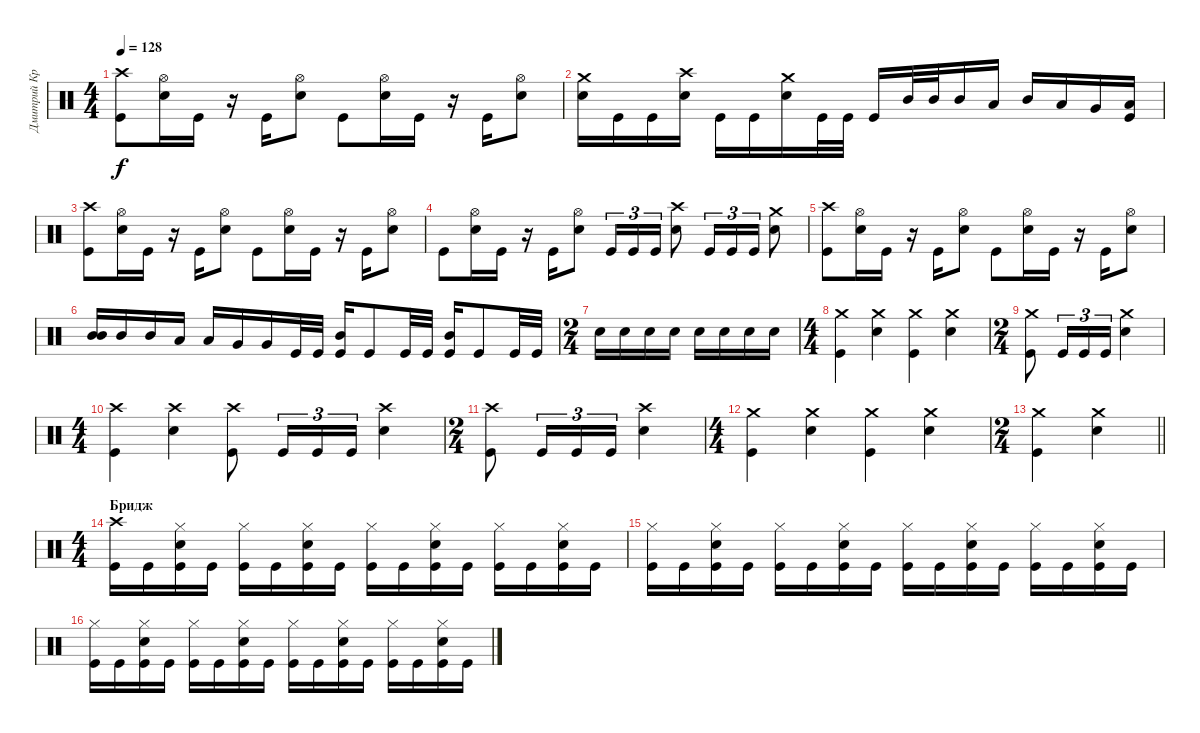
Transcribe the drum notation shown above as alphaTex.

\track ("Дмитрий Кривенков" "Дмитрий Кр") {instrument percussion}
\staff {score}
\articulation defaults
\ts (4 4)
\tempo 128
\clef neutral
\ks c
("Crash high (hit)" "Kick (hit)").8{dy f} ("Snare (hit) 2" "Hi-Hat (open)").16 "Kick (hit)".16 r.16 "Kick (hit)".16 ("Snare (hit) 2" "Hi-Hat (open)").8 "Kick (hit)".8 ("Snare (hit) 2" "Hi-Hat (open)").16 "Kick (hit)".16 r.16 "Kick (hit)".16 ("Snare (hit) 2" "Hi-Hat (open)").8 |
("Crash medium (hit)" "Snare (hit) 2").16 "Kick (hit)".16 "Kick (hit)".16 ("Crash high (hit)" "Snare (hit) 2").16 "Kick (hit)".16 "Kick (hit)".16 ("Crash medium (hit)" "Snare (hit) 2").16 "Kick (hit)".32 "Kick (hit)".32 "Kick (hit)".16 "Mid Tom (hit)".32 "Mid Tom (hit)".32 "Mid Tom (hit)".16 "Low Tom (hit)".16 "Mid Tom (hit)".16 "Low Tom (hit)".16 "Very Low Tom (hit)".16 ("Low Tom (hit)" "Kick (hit)").16 |
("Crash high (hit)" "Kick (hit)").8 ("Snare (hit) 2" "Hi-Hat (open)").16 "Kick (hit)".16 r.16 "Kick (hit)".16 ("Snare (hit) 2" "Hi-Hat (open)").8 "Kick (hit)".8 ("Snare (hit) 2" "Hi-Hat (open)").16 "Kick (hit)".16 r.16 "Kick (hit)".16 ("Snare (hit) 2" "Hi-Hat (open)").8 |
"Kick (hit)".8 ("Snare (hit) 2" "Hi-Hat (open)").16 "Kick (hit)".16 r.16 "Kick (hit)".16 ("Snare (hit) 2" "Hi-Hat (open)").8 "Kick (hit)".16{tu (3 2)} "Kick (hit)".16{tu (3 2)} "Kick (hit)".16{tu (3 2)} ("Snare (hit) 2" "Crash high (hit)").8 "Kick (hit)".16{tu (3 2)} "Kick (hit)".16{tu (3 2)} "Kick (hit)".16{tu (3 2)} ("Snare (hit) 2" "Crash medium (hit)").8 |
("Crash high (hit)" "Kick (hit)").8 ("Snare (hit) 2" "Hi-Hat (open)").16 "Kick (hit)".16 r.16 "Kick (hit)".16 ("Snare (hit) 2" "Hi-Hat (open)").8 "Kick (hit)".8 ("Snare (hit) 2" "Hi-Hat (open)").16 "Kick (hit)".16 r.16 "Kick (hit)".16 ("Snare (hit) 2" "Hi-Hat (open)").8 |
("Mid Tom (hit)" "Mid Tom (hit)").16{bd 120} "Mid Tom (hit)".16 "Mid Tom (hit)".16 "Low Tom (hit)".16 "Low Tom (hit)".16 "Very Low Tom (hit)".16 "Very Low Tom (hit)".16 "Kick (hit)".32 "Kick (hit)".32 ("Kick (hit)" "Mid Tom (hit)").16 "Kick (hit)".8 "Kick (hit)".32 "Kick (hit)".32 ("Kick (hit)" "Mid Tom (hit)").16 "Kick (hit)".8 "Kick (hit)".32 "Kick (hit)".32 |
\ts (2 4)
"Snare (hit) 2".16 "Snare (hit) 2".16 "Snare (hit) 2".16 "Snare (hit) 2".16 "Snare (hit) 2".16 "Snare (hit) 2".16 "Snare (hit) 2".16 "Snare (hit) 2".16 |
\ts (4 4)
("Crash medium (hit)" "Kick (hit)").4 ("Crash medium (hit)" "Snare (hit) 2").4 ("Crash medium (hit)" "Kick (hit)").4 ("Crash medium (hit)" "Snare (hit) 2").4 |
\ts (2 4)
("Crash medium (hit)" "Kick (hit)").8 "Kick (hit)".16{tu (3 2)} "Kick (hit)".16{tu (3 2)} "Kick (hit)".16{tu (3 2)} ("Crash medium (hit)" "Snare (hit) 2").4 |
\ts (4 4)
("Crash high (hit)" "Kick (hit)").4 ("Crash high (hit)" "Snare (hit) 2").4 ("Crash high (hit)" "Kick (hit)").8 "Kick (hit)".16{tu (3 2)} "Kick (hit)".16{tu (3 2)} "Kick (hit)".16{tu (3 2)} ("Crash high (hit)" "Snare (hit) 2").4 |
\ts (2 4)
("Crash high (hit)" "Kick (hit)").8 "Kick (hit)".16{tu (3 2)} "Kick (hit)".16{tu (3 2)} "Kick (hit)".16{tu (3 2)} ("Crash high (hit)" "Snare (hit) 2").4 |
\ts (4 4)
("Crash medium (hit)" "Kick (hit)").4 ("Crash medium (hit)" "Snare (hit) 2").4 ("Crash medium (hit)" "Kick (hit)").4 ("Crash medium (hit)" "Snare (hit) 2").4 |
\ts (2 4)
\barLineRight lightlight
("Crash medium (hit)" "Kick (hit)").4 ("Crash medium (hit)" "Snare (hit) 2").4 |
\ts (4 4)
\section ("" "Бридж")
("Crash high (hit)" "Kick (hit)").16 "Kick (hit)".16 ("Snare (hit) 2" "Hi-Hat (closed)" "Kick (hit)").16 "Kick (hit)".16 ("Hi-Hat (closed)" "Kick (hit)").16 "Kick (hit)".16 ("Snare (hit) 2" "Hi-Hat (closed)" "Kick (hit)").16 "Kick (hit)".16 ("Hi-Hat (closed)" "Kick (hit)").16 "Kick (hit)".16 ("Snare (hit) 2" "Hi-Hat (closed)" "Kick (hit)").16 "Kick (hit)".16 ("Hi-Hat (closed)" "Kick (hit)").16 "Kick (hit)".16 ("Snare (hit) 2" "Hi-Hat (closed)" "Kick (hit)").16 "Kick (hit)".16 |
("Hi-Hat (closed)" "Kick (hit)").16 "Kick (hit)".16 ("Snare (hit) 2" "Hi-Hat (closed)" "Kick (hit)").16 "Kick (hit)".16 ("Hi-Hat (closed)" "Kick (hit)").16 "Kick (hit)".16 ("Snare (hit) 2" "Hi-Hat (closed)" "Kick (hit)").16 "Kick (hit)".16 ("Hi-Hat (closed)" "Kick (hit)").16 "Kick (hit)".16 ("Snare (hit) 2" "Hi-Hat (closed)" "Kick (hit)").16 "Kick (hit)".16 ("Hi-Hat (closed)" "Kick (hit)").16 "Kick (hit)".16 ("Snare (hit) 2" "Hi-Hat (closed)" "Kick (hit)").16 "Kick (hit)".16 |
("Hi-Hat (closed)" "Kick (hit)").16 "Kick (hit)".16 ("Snare (hit) 2" "Hi-Hat (closed)" "Kick (hit)").16 "Kick (hit)".16 ("Hi-Hat (closed)" "Kick (hit)").16 "Kick (hit)".16 ("Snare (hit) 2" "Hi-Hat (closed)" "Kick (hit)").16 "Kick (hit)".16 ("Hi-Hat (closed)" "Kick (hit)").16 "Kick (hit)".16 ("Snare (hit) 2" "Hi-Hat (closed)" "Kick (hit)").16 "Kick (hit)".16 ("Hi-Hat (closed)" "Kick (hit)").16 "Kick (hit)".16 ("Snare (hit) 2" "Hi-Hat (closed)" "Kick (hit)").16 "Kick (hit)".16
